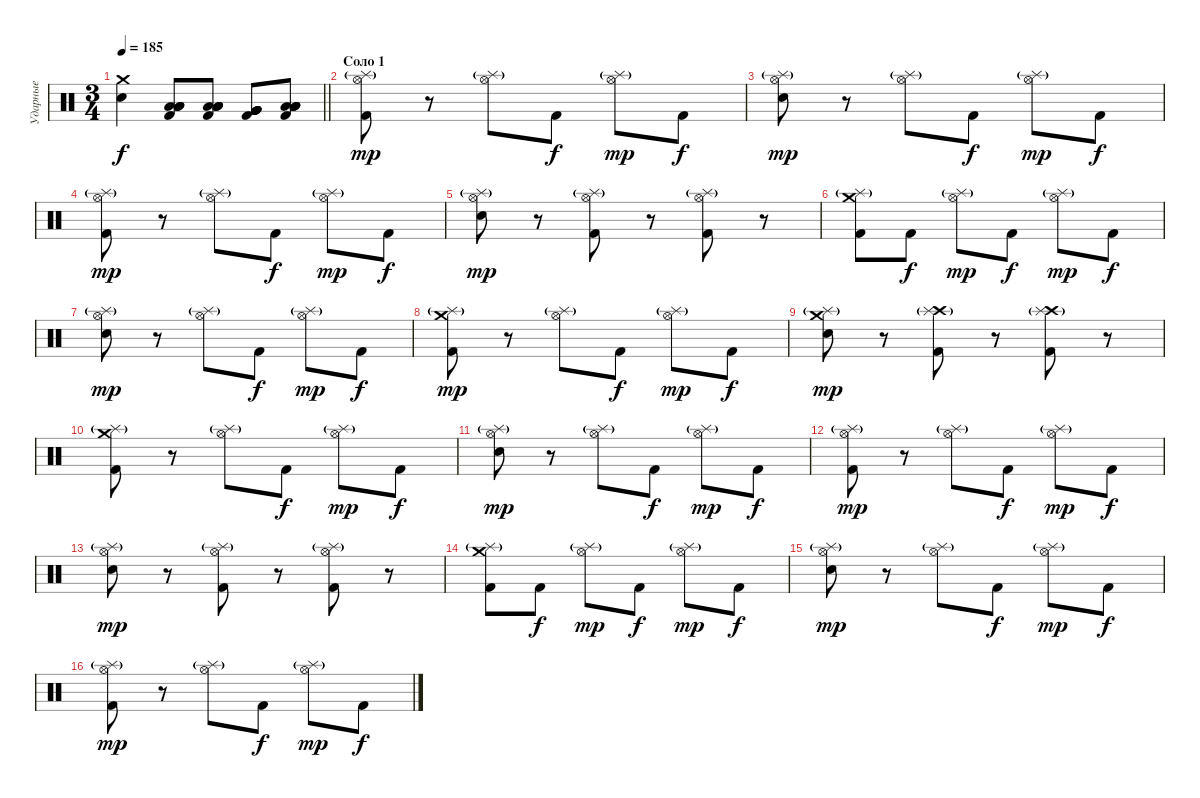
\track ("Ударные" "Ударные") {instrument percussion}
\staff {score}
\articulation defaults
\ts (3 4)
\tempo 185
\clef neutral
\barLineRight lightlight
\ks c
("Snare (hit) 2" "Crash medium (hit)").4{dy f} ("Low Tom (hit)" "Low Tom (hit)" "Kick (hit) 2" "Low Tom (hit)" "Low Tom (hit)").8 ("Low Tom (hit)" "Low Tom (hit)" "Kick (hit) 2" "Low Tom (hit)" "Low Tom (hit)").8 ("Very Low Tom (hit)" "Very Low Tom (hit)" "Kick (hit) 2" "Very Low Tom (hit)" "Very Low Tom (hit)").8 ("Low Floor Tom (hit)" "Low Floor Tom (hit)" "Kick (hit) 2" "Low Floor Tom (hit)" "Low Floor Tom (hit)").8 |
\section ("" "Соло 1")
("Hi-Hat (open)" "Splash (hit)"{g} "Kick (hit) 2").8{dy mp} r.8 ("Hi-Hat (open)" "Splash (hit)"{g}).8 "Kick (hit) 2".8{dy f} ("Hi-Hat (open)" "Splash (hit)"{g}).8{dy mp} "Kick (hit) 2".8{dy f} |
("Hi-Hat (open)" "Splash (hit)"{g} "Snare (hit) 2").8{dy mp} r.8 ("Hi-Hat (open)" "Splash (hit)"{g}).8 "Kick (hit) 2".8{dy f} ("Hi-Hat (open)" "Splash (hit)"{g}).8{dy mp} "Kick (hit) 2".8{dy f} |
("Hi-Hat (open)" "Splash (hit)"{g} "Kick (hit) 2").8{dy mp} r.8 ("Hi-Hat (open)" "Splash (hit)"{g}).8 "Kick (hit) 2".8{dy f} ("Hi-Hat (open)" "Splash (hit)"{g}).8{dy mp} "Kick (hit) 2".8{dy f} |
("Hi-Hat (open)" "Splash (hit)"{g} "Snare (hit) 2").8{dy mp} r.8 ("Hi-Hat (open)" "Splash (hit)"{g} "Kick (hit) 2").8 r.8 ("Hi-Hat (open)" "Splash (hit)"{g} "Kick (hit) 2").8 r.8 |
("Crash medium (hit)" "Splash (hit)"{g} "Kick (hit) 2").8 "Kick (hit) 2".8{dy f} ("Hi-Hat (open)" "Splash (hit)"{g}).8{dy mp} "Kick (hit) 2".8{dy f} ("Hi-Hat (open)" "Splash (hit)"{g}).8{dy mp} "Kick (hit) 2".8{dy f} |
("Hi-Hat (open)" "Splash (hit)"{g} "Snare (hit) 2").8{dy mp} r.8 ("Hi-Hat (open)" "Splash (hit)"{g}).8 "Kick (hit) 2".8{dy f} ("Hi-Hat (open)" "Splash (hit)"{g}).8{dy mp} "Kick (hit) 2".8{dy f} |
("Crash medium (hit)" "Splash (hit)"{g} "Kick (hit) 2").8{dy mp} r.8 ("Hi-Hat (open)" "Splash (hit)"{g}).8 "Kick (hit) 2".8{dy f} ("Hi-Hat (open)" "Splash (hit)"{g}).8{dy mp} "Kick (hit) 2".8{dy f} |
("Crash medium (hit)" "Splash (hit)"{g} "Snare (hit) 2").8{dy mp} r.8 ("Crash high (hit)" "Splash (hit)"{g} "Kick (hit) 2").8 r.8 ("Crash high (hit)" "Splash (hit)"{g} "Kick (hit) 2").8 r.8 |
("Crash medium (hit)" "Splash (hit)"{g} "Kick (hit) 2").8 r.8 ("Hi-Hat (open)" "Splash (hit)"{g}).8 "Kick (hit) 2".8{dy f} ("Hi-Hat (open)" "Splash (hit)"{g}).8{dy mp} "Kick (hit) 2".8{dy f} |
("Hi-Hat (open)" "Splash (hit)"{g} "Snare (hit) 2").8{dy mp} r.8 ("Hi-Hat (open)" "Splash (hit)"{g}).8 "Kick (hit) 2".8{dy f} ("Hi-Hat (open)" "Splash (hit)"{g}).8{dy mp} "Kick (hit) 2".8{dy f} |
("Hi-Hat (open)" "Splash (hit)"{g} "Kick (hit) 2").8{dy mp} r.8 ("Hi-Hat (open)" "Splash (hit)"{g}).8 "Kick (hit) 2".8{dy f} ("Hi-Hat (open)" "Splash (hit)"{g}).8{dy mp} "Kick (hit) 2".8{dy f} |
("Hi-Hat (open)" "Splash (hit)"{g} "Snare (hit) 2").8{dy mp} r.8 ("Hi-Hat (open)" "Splash (hit)"{g} "Kick (hit) 2").8 r.8 ("Hi-Hat (open)" "Splash (hit)"{g} "Kick (hit) 2").8 r.8 |
("Crash medium (hit)" "Splash (hit)"{g} "Kick (hit) 2").8 "Kick (hit) 2".8{dy f} ("Hi-Hat (open)" "Splash (hit)"{g}).8{dy mp} "Kick (hit) 2".8{dy f} ("Hi-Hat (open)" "Splash (hit)"{g}).8{dy mp} "Kick (hit) 2".8{dy f} |
("Hi-Hat (open)" "Splash (hit)"{g} "Snare (hit) 2").8{dy mp} r.8 ("Hi-Hat (open)" "Splash (hit)"{g}).8 "Kick (hit) 2".8{dy f} ("Hi-Hat (open)" "Splash (hit)"{g}).8{dy mp} "Kick (hit) 2".8{dy f} |
("Hi-Hat (open)" "Splash (hit)"{g} "Kick (hit) 2").8{dy mp} r.8 ("Hi-Hat (open)" "Splash (hit)"{g}).8 "Kick (hit) 2".8{dy f} ("Hi-Hat (open)" "Splash (hit)"{g}).8{dy mp} "Kick (hit) 2".8{dy f}
